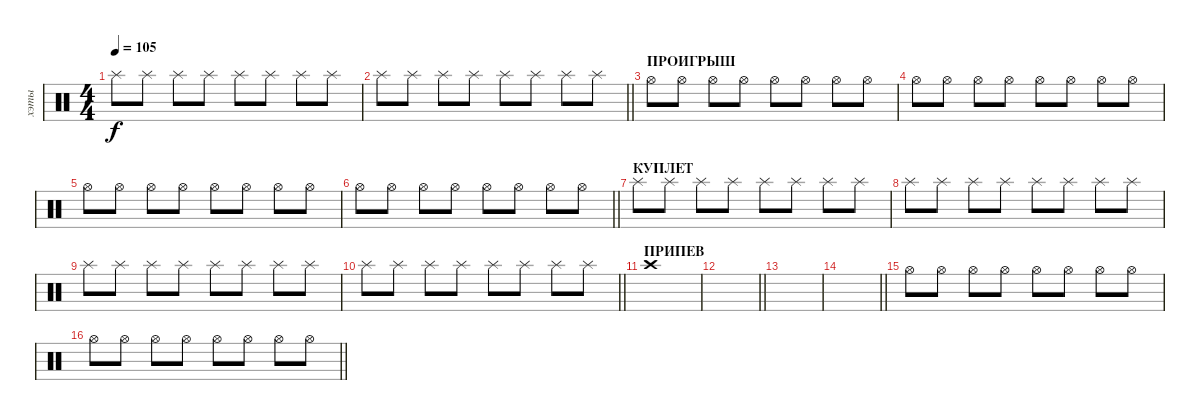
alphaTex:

\track ("хэты" "хэты") {instrument percussion}
\staff {score}
\articulation defaults
\ts (4 4)
\tempo 105
\clef neutral
\ks c "Splash (hit)".8{dy f} "Splash (hit)".8 "Splash (hit)".8 "Splash (hit)".8 "Splash (hit)".8 "Splash (hit)".8 "Splash (hit)".8 "Splash (hit)".8
|
\barLineRight lightlight "Splash (hit)".8 "Splash (hit)".8 "Splash (hit)".8 "Splash (hit)".8 "Splash (hit)".8 "Splash (hit)".8 "Splash (hit)".8 "Splash (hit)".8
|
\section ("" "ПРОИГРЫШ")
"Hi-Hat (open)".8 "Hi-Hat (open)".8 "Hi-Hat (open)".8 "Hi-Hat (open)".8 "Hi-Hat (open)".8 "Hi-Hat (open)".8 "Hi-Hat (open)".8 "Hi-Hat (open)".8 |
"Hi-Hat (open)".8 "Hi-Hat (open)".8 "Hi-Hat (open)".8 "Hi-Hat (open)".8 "Hi-Hat (open)".8 "Hi-Hat (open)".8 "Hi-Hat (open)".8 "Hi-Hat (open)".8 |
"Hi-Hat (open)".8 "Hi-Hat (open)".8 "Hi-Hat (open)".8 "Hi-Hat (open)".8 "Hi-Hat (open)".8 "Hi-Hat (open)".8 "Hi-Hat (open)".8 "Hi-Hat (open)".8 |
\barLineRight lightlight "Hi-Hat (open)".8 "Hi-Hat (open)".8 "Hi-Hat (open)".8 "Hi-Hat (open)".8 "Hi-Hat (open)".8 "Hi-Hat (open)".8 "Hi-Hat (open)".8 "Hi-Hat (open)".8
|
\section ("" "КУПЛЕТ")
"Splash (hit)".8 "Splash (hit)".8 "Splash (hit)".8 "Splash (hit)".8 "Splash (hit)".8 "Splash (hit)".8 "Splash (hit)".8 "Splash (hit)".8 |
"Splash (hit)".8 "Splash (hit)".8 "Splash (hit)".8 "Splash (hit)".8 "Splash (hit)".8 "Splash (hit)".8 "Splash (hit)".8 "Splash (hit)".8 |
"Splash (hit)".8 "Splash (hit)".8 "Splash (hit)".8 "Splash (hit)".8 "Splash (hit)".8 "Splash (hit)".8 "Splash (hit)".8 "Splash (hit)".8 |
\barLineRight lightlight "Splash (hit)".8 "Splash (hit)".8 "Splash (hit)".8 "Splash (hit)".8 "Splash (hit)".8 "Splash (hit)".8 "Splash (hit)".8 "Splash (hit)".8
|
\section ("" "ПРИПЕВ")
"Crash high (hit)".1 |
\barLineRight lightlight
|
|
\barLineRight lightlight
|
"Hi-Hat (open)".8 "Hi-Hat (open)".8 "Hi-Hat (open)".8 "Hi-Hat (open)".8 "Hi-Hat (open)".8 "Hi-Hat (open)".8 "Hi-Hat (open)".8 "Hi-Hat (open)".8 |
\barLineRight lightlight "Hi-Hat (open)".8 "Hi-Hat (open)".8 "Hi-Hat (open)".8 "Hi-Hat (open)".8 "Hi-Hat (open)".8 "Hi-Hat (open)".8 "Hi-Hat (open)".8 "Hi-Hat (open)".8
